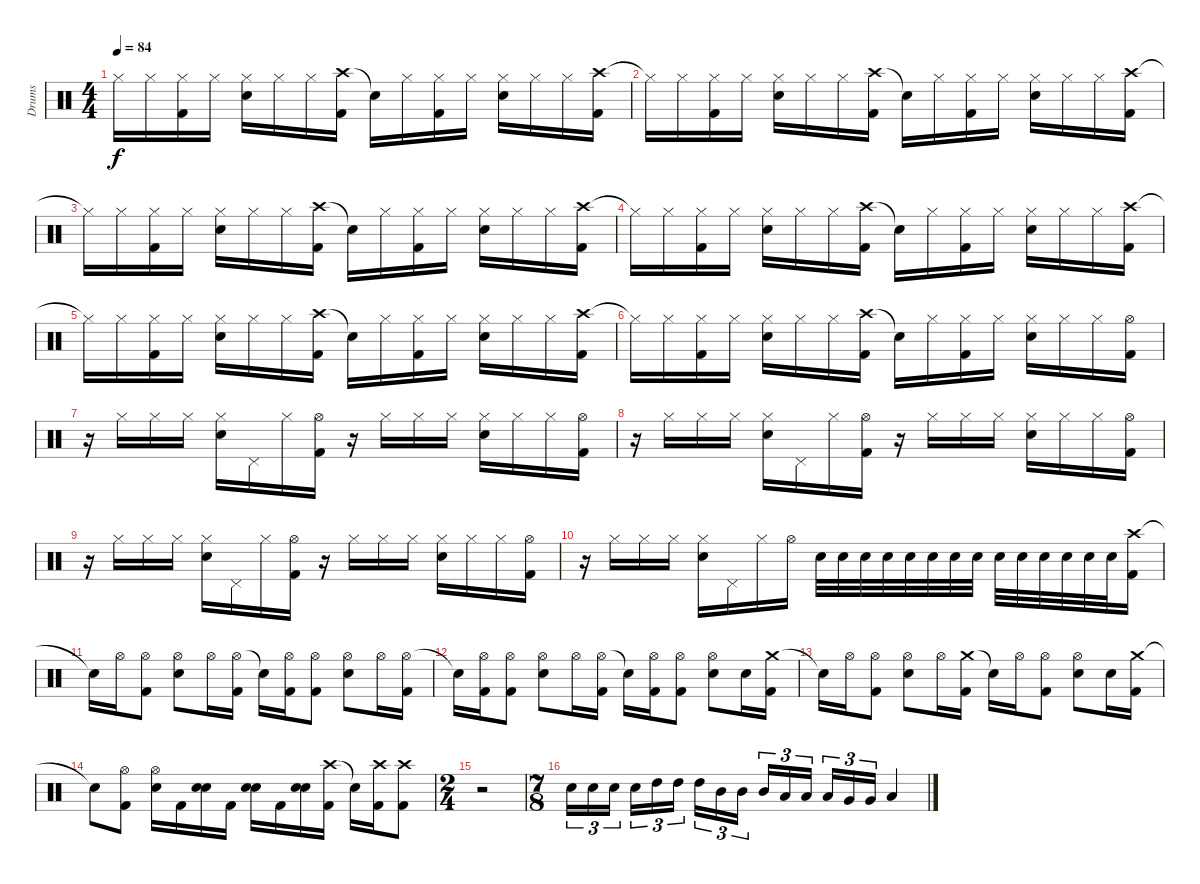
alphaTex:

\track ("Drums" "Drums") {instrument percussion}
\staff {score}
\articulation defaults
\ts (4 4)
\tempo 84
\clef neutral
\ks c "Hi-Hat (closed)"{t}.16{dy f} "Hi-Hat (closed)".16
("Hi-Hat (closed)" "Kick (hit) 2").16 "Hi-Hat (closed)".16 ("Hi-Hat (closed)" "Snare (hit) 2").16 "Hi-Hat (closed)".16 "Hi-Hat (closed)".16 ("Crash high (hit)" "Kick (hit) 2").16 "Snare (hit) 2"{t}.16 "Hi-Hat (closed)".16 ("Hi-Hat (closed)" "Kick (hit) 2").16 "Hi-Hat (closed)".16 ("Hi-Hat (closed)" "Snare (hit) 2").16 "Hi-Hat (closed)".16 "Hi-Hat (closed)".16 ("Crash high (hit)" "Kick (hit) 2").16 |
"Hi-Hat (closed)"{t}.16 "Hi-Hat (closed)".16 ("Hi-Hat (closed)" "Kick (hit) 2").16 "Hi-Hat (closed)".16 ("Hi-Hat (closed)" "Snare (hit) 2").16 "Hi-Hat (closed)".16 "Hi-Hat (closed)".16 ("Crash high (hit)" "Kick (hit) 2").16 "Snare (hit) 2"{t}.16 "Hi-Hat (closed)".16 ("Hi-Hat (closed)" "Kick (hit) 2").16 "Hi-Hat (closed)".16 ("Hi-Hat (closed)" "Snare (hit) 2").16 "Hi-Hat (closed)".16 "Hi-Hat (closed)".16 ("Crash high (hit)" "Kick (hit) 2").16 |
"Hi-Hat (closed)"{t}.16 "Hi-Hat (closed)".16 ("Hi-Hat (closed)" "Kick (hit) 2").16 "Hi-Hat (closed)".16 ("Hi-Hat (closed)" "Snare (hit) 2").16 "Hi-Hat (closed)".16 "Hi-Hat (closed)".16 ("Crash high (hit)" "Kick (hit) 2").16 "Snare (hit) 2"{t}.16 "Hi-Hat (closed)".16 ("Hi-Hat (closed)" "Kick (hit) 2").16 "Hi-Hat (closed)".16 ("Hi-Hat (closed)" "Snare (hit) 2").16 "Hi-Hat (closed)".16 "Hi-Hat (closed)".16 ("Crash high (hit)" "Kick (hit) 2").16 |
"Hi-Hat (closed)"{t}.16 "Hi-Hat (closed)".16 ("Hi-Hat (closed)" "Kick (hit) 2").16 "Hi-Hat (closed)".16 ("Hi-Hat (closed)" "Snare (hit) 2").16 "Hi-Hat (closed)".16 "Hi-Hat (closed)".16 ("Crash high (hit)" "Kick (hit) 2").16 "Snare (hit) 2"{t}.16 "Hi-Hat (closed)".16 ("Hi-Hat (closed)" "Kick (hit) 2").16 "Hi-Hat (closed)".16 ("Hi-Hat (closed)" "Snare (hit) 2").16 "Hi-Hat (closed)".16 "Hi-Hat (closed)".16 ("Crash high (hit)" "Kick (hit) 2").16 |
"Hi-Hat (closed)"{t}.16 "Hi-Hat (closed)".16 ("Hi-Hat (closed)" "Kick (hit) 2").16 "Hi-Hat (closed)".16 ("Hi-Hat (closed)" "Snare (hit) 2").16 "Hi-Hat (closed)".16 "Hi-Hat (closed)".16 ("Crash high (hit)" "Kick (hit) 2").16 "Snare (hit) 2"{t}.16 "Hi-Hat (closed)".16 ("Hi-Hat (closed)" "Kick (hit) 2").16 "Hi-Hat (closed)".16 ("Hi-Hat (closed)" "Snare (hit) 2").16 "Hi-Hat (closed)".16 "Hi-Hat (closed)".16 ("Crash high (hit)" "Kick (hit) 2").16 |
"Hi-Hat (closed)"{t}.16 "Hi-Hat (closed)".16 ("Hi-Hat (closed)" "Kick (hit) 2").16 "Hi-Hat (closed)".16 ("Hi-Hat (closed)" "Snare (hit) 2").16 "Hi-Hat (closed)".16 "Hi-Hat (closed)".16 ("Crash high (hit)" "Kick (hit) 2").16 "Snare (hit) 2"{t}.16 "Hi-Hat (closed)".16 ("Hi-Hat (closed)" "Kick (hit) 2").16 "Hi-Hat (closed)".16 ("Hi-Hat (closed)" "Snare (hit) 2").16 "Hi-Hat (closed)".16 "Hi-Hat (closed)".16 ("Hi-Hat (open)" "Kick (hit) 2").16 |
r.16 "Hi-Hat (closed)".16 "Hi-Hat (closed)".16 "Hi-Hat (closed)".16 ("Hi-Hat (closed)" "Snare (hit) 2").16 "Pedal Hi-Hat (hit)".16 "Hi-Hat (closed)".16 ("Hi-Hat (open)" "Kick (hit) 2").16 r.16 "Hi-Hat (closed)".16 "Hi-Hat (closed)".16 "Hi-Hat (closed)".16 ("Hi-Hat (closed)" "Snare (hit) 2").16 "Hi-Hat (closed)".16 "Hi-Hat (closed)".16 ("Hi-Hat (open)" "Kick (hit) 2").16 |
r.16 "Hi-Hat (closed)".16 "Hi-Hat (closed)".16 "Hi-Hat (closed)".16 ("Hi-Hat (closed)" "Snare (hit) 2").16 "Pedal Hi-Hat (hit)".16 "Hi-Hat (closed)".16 ("Hi-Hat (open)" "Kick (hit) 2").16 r.16 "Hi-Hat (closed)".16 "Hi-Hat (closed)".16 "Hi-Hat (closed)".16 ("Hi-Hat (closed)" "Snare (hit) 2").16 "Hi-Hat (closed)".16 "Hi-Hat (closed)".16 ("Hi-Hat (open)" "Kick (hit) 2").16 |
r.16 "Hi-Hat (closed)".16 "Hi-Hat (closed)".16 "Hi-Hat (closed)".16 ("Hi-Hat (closed)" "Snare (hit) 2").16 "Pedal Hi-Hat (hit)".16 "Hi-Hat (closed)".16 ("Hi-Hat (open)" "Kick (hit) 2").16 r.16 "Hi-Hat (closed)".16 "Hi-Hat (closed)".16 "Hi-Hat (closed)".16 ("Hi-Hat (closed)" "Snare (hit) 2").16 "Hi-Hat (closed)".16 "Hi-Hat (closed)".16 ("Hi-Hat (open)" "Kick (hit) 2").16 |
r.16 "Hi-Hat (closed)".16 "Hi-Hat (closed)".16 "Hi-Hat (closed)".16 ("Hi-Hat (closed)" "Snare (hit) 2").16 "Pedal Hi-Hat (hit)".16 "Hi-Hat (closed)".16 "Hi-Hat (open)".16 "Snare (hit) 2".32 "Snare (hit) 2".32 "Snare (hit) 2".32 "Snare (hit) 2".32 "Snare (hit) 2".32 "Snare (hit) 2".32 "Snare (hit) 2".32 "Snare (hit) 2".32 "Snare (hit) 2".32 "Snare (hit) 2".32 "Snare (hit) 2".32 "Snare (hit) 2".32 "Snare (hit) 2".32 "Snare (hit) 2".32 ("Crash high (hit)" "Kick (hit) 2").16 |
"Snare (hit)"{t}.16 "Hi-Hat (open)".16 ("Hi-Hat (open)" "Kick (hit) 2").8 ("Hi-Hat (open)" "Snare (hit) 2").8 "Hi-Hat (open)".16 ("Hi-Hat (open)" "Kick (hit) 2").16 "Snare (hit)"{t}.16 ("Hi-Hat (open)" "Kick (hit) 2").16 ("Hi-Hat (open)" "Kick (hit) 2").8 ("Hi-Hat (open)" "Snare (hit) 2").8 "Hi-Hat (open)".16 ("Hi-Hat (open)" "Kick (hit) 2").16 |
"Snare (hit)"{t}.16 ("Hi-Hat (open)" "Kick (hit) 2").16 ("Hi-Hat (open)" "Kick (hit) 2").8 ("Hi-Hat (open)" "Snare (hit) 2").8 "Hi-Hat (open)".16 ("Hi-Hat (open)" "Kick (hit) 2").16 "Snare (hit)"{t}.16 ("Hi-Hat (open)" "Kick (hit) 2").16 ("Hi-Hat (open)" "Kick (hit) 2").8 ("Hi-Hat (open)" "Snare (hit) 2").8 "Snare (hit) 2".16 ("Crash medium (hit)" "Kick (hit) 2").16 |
"Snare (hit)"{t}.16 "Hi-Hat (open)".16 ("Hi-Hat (open)" "Kick (hit) 2").8 ("Hi-Hat (open)" "Snare (hit) 2").8 "Hi-Hat (open)".16 ("Crash medium (hit)" "Kick (hit) 2").16 "Snare (hit)"{t}.16 "Hi-Hat (open)".16 ("Hi-Hat (open)" "Kick (hit) 2").8 ("Hi-Hat (open)" "Snare (hit) 2").8 "Snare (hit) 2".16 ("Crash medium (hit)" "Kick (hit) 2").16 |
"Snare (hit)"{t}.8 ("Hi-Hat (open)" "Kick (hit) 2").8 ("Hi-Hat (open)" "Snare (hit) 2").16 "Kick (hit) 2".16 ("Snare (hit) 2" "Snare (hit) 2").16 "Kick (hit) 2".16 ("Snare (hit) 2" "Snare (hit) 2").16 "Kick (hit) 2".16 ("Snare (hit) 2" "Snare (hit) 2").16 ("Crash high (hit)" "Kick (hit) 2").16 "Snare (hit)"{t}.16 ("Crash high (hit)" "Kick (hit) 2").16 ("Crash high (hit)" "Kick (hit) 2").8 |
\ts (2 4)
r.2 |
\ts (7 8)
"Snare (hit) 2".16{tu (3 2)} "Snare (hit) 2".16{tu (3 2)} "Snare (hit) 2".16{tu (3 2)} "Snare (hit) 2".16{tu (3 2)} "High Tom (hit)".16{tu (3 2)} "High Tom (hit)".16{tu (3 2)} "High Tom (hit)".16{tu (3 2)} "Mid Tom (hit)".16{tu (3 2)} "Mid Tom (hit)".16{tu (3 2)} "Mid Tom (hit)".16{tu (3 2)} "Low Tom (hit)".16{tu (3 2)} "Low Tom (hit)".16{tu (3 2)} "Low Tom (hit)".16{tu (3 2)} "Very Low Tom (hit)".16{tu (3 2)} "Very Low Tom (hit)".16{tu (3 2)} "Low Floor Tom (hit)".4
